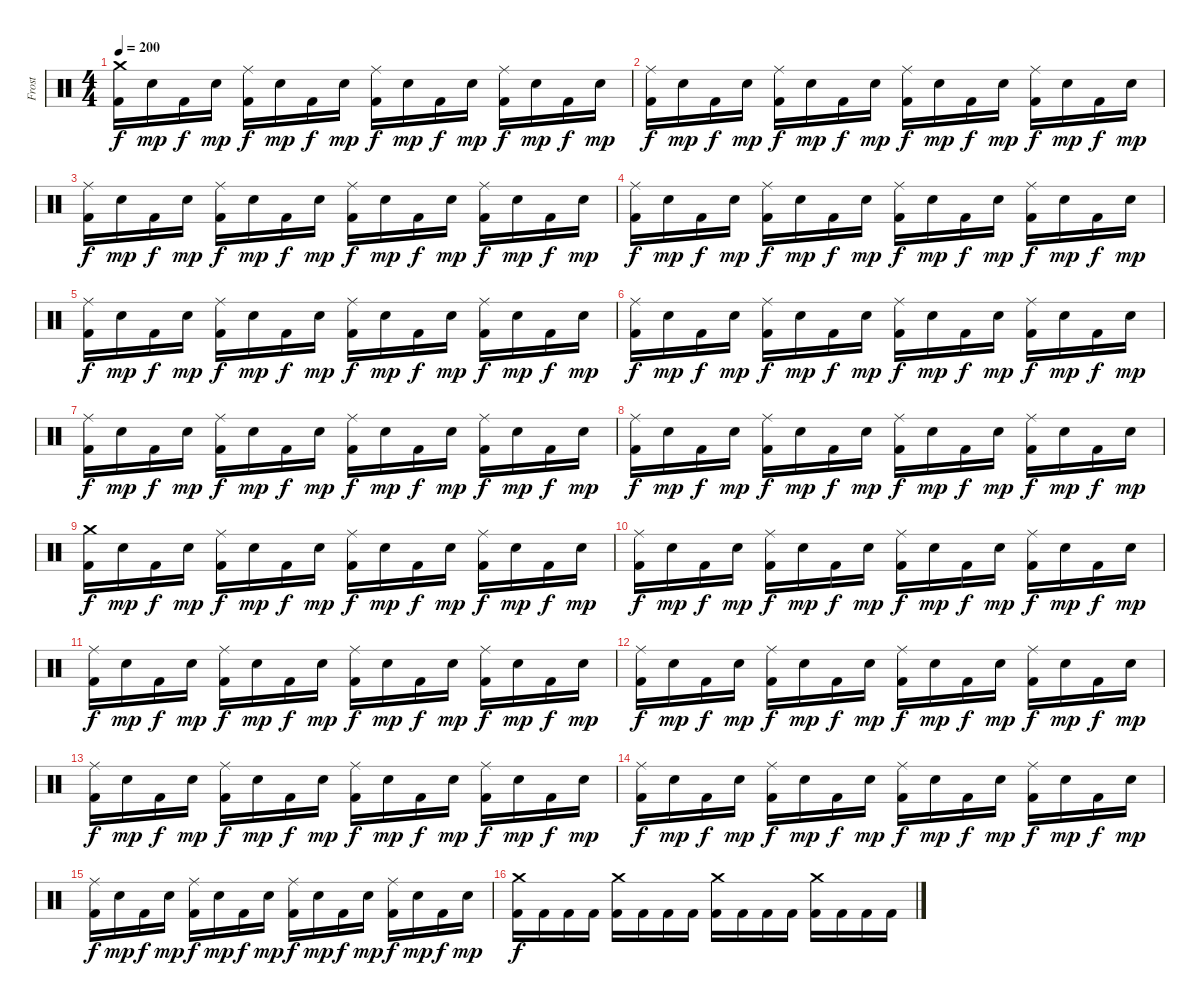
\track ("Frost" "Frost") {instrument percussion}
\staff {score}
\articulation defaults
\ts (4 4)
\tempo 200
\clef neutral
\ks c
("Crash medium (hit)" "Kick (hit) 2").16{dy f} "Electric Snare (hit)".16{dy mp} "Kick (hit) 2".16{dy f} "Electric Snare (hit)".16{dy mp} ("Ride (middle)" "Kick (hit) 2").16{dy f} "Electric Snare (hit)".16{dy mp} "Kick (hit) 2".16{dy f} "Electric Snare (hit)".16{dy mp} ("Ride (middle)" "Kick (hit) 2").16{dy f} "Electric Snare (hit)".16{dy mp} "Kick (hit) 2".16{dy f} "Electric Snare (hit)".16{dy mp} ("Ride (middle)" "Kick (hit) 2").16{dy f} "Electric Snare (hit)".16{dy mp} "Kick (hit) 2".16{dy f} "Electric Snare (hit)".16{dy mp} |
("Ride (middle)" "Kick (hit) 2").16{dy f} "Electric Snare (hit)".16{dy mp} "Kick (hit) 2".16{dy f} "Electric Snare (hit)".16{dy mp} ("Ride (middle)" "Kick (hit) 2").16{dy f} "Electric Snare (hit)".16{dy mp} "Kick (hit) 2".16{dy f} "Electric Snare (hit)".16{dy mp} ("Ride (middle)" "Kick (hit) 2").16{dy f} "Electric Snare (hit)".16{dy mp} "Kick (hit) 2".16{dy f} "Electric Snare (hit)".16{dy mp} ("Ride (middle)" "Kick (hit) 2").16{dy f} "Electric Snare (hit)".16{dy mp} "Kick (hit) 2".16{dy f} "Electric Snare (hit)".16{dy mp} |
("Ride (middle)" "Kick (hit) 2").16{dy f} "Electric Snare (hit)".16{dy mp} "Kick (hit) 2".16{dy f} "Electric Snare (hit)".16{dy mp} ("Ride (middle)" "Kick (hit) 2").16{dy f} "Electric Snare (hit)".16{dy mp} "Kick (hit) 2".16{dy f} "Electric Snare (hit)".16{dy mp} ("Ride (middle)" "Kick (hit) 2").16{dy f} "Electric Snare (hit)".16{dy mp} "Kick (hit) 2".16{dy f} "Electric Snare (hit)".16{dy mp} ("Ride (middle)" "Kick (hit) 2").16{dy f} "Electric Snare (hit)".16{dy mp} "Kick (hit) 2".16{dy f} "Electric Snare (hit)".16{dy mp} |
("Ride (middle)" "Kick (hit) 2").16{dy f} "Electric Snare (hit)".16{dy mp} "Kick (hit) 2".16{dy f} "Electric Snare (hit)".16{dy mp} ("Ride (middle)" "Kick (hit) 2").16{dy f} "Electric Snare (hit)".16{dy mp} "Kick (hit) 2".16{dy f} "Electric Snare (hit)".16{dy mp} ("Ride (middle)" "Kick (hit) 2").16{dy f} "Electric Snare (hit)".16{dy mp} "Kick (hit) 2".16{dy f} "Electric Snare (hit)".16{dy mp} ("Ride (middle)" "Kick (hit) 2").16{dy f} "Electric Snare (hit)".16{dy mp} "Kick (hit) 2".16{dy f} "Electric Snare (hit)".16{dy mp} |
("Ride (middle)" "Kick (hit) 2").16{dy f} "Electric Snare (hit)".16{dy mp} "Kick (hit) 2".16{dy f} "Electric Snare (hit)".16{dy mp} ("Ride (middle)" "Kick (hit) 2").16{dy f} "Electric Snare (hit)".16{dy mp} "Kick (hit) 2".16{dy f} "Electric Snare (hit)".16{dy mp} ("Ride (middle)" "Kick (hit) 2").16{dy f} "Electric Snare (hit)".16{dy mp} "Kick (hit) 2".16{dy f} "Electric Snare (hit)".16{dy mp} ("Ride (middle)" "Kick (hit) 2").16{dy f} "Electric Snare (hit)".16{dy mp} "Kick (hit) 2".16{dy f} "Electric Snare (hit)".16{dy mp} |
("Ride (middle)" "Kick (hit) 2").16{dy f} "Electric Snare (hit)".16{dy mp} "Kick (hit) 2".16{dy f} "Electric Snare (hit)".16{dy mp} ("Ride (middle)" "Kick (hit) 2").16{dy f} "Electric Snare (hit)".16{dy mp} "Kick (hit) 2".16{dy f} "Electric Snare (hit)".16{dy mp} ("Ride (middle)" "Kick (hit) 2").16{dy f} "Electric Snare (hit)".16{dy mp} "Kick (hit) 2".16{dy f} "Electric Snare (hit)".16{dy mp} ("Ride (middle)" "Kick (hit) 2").16{dy f} "Electric Snare (hit)".16{dy mp} "Kick (hit) 2".16{dy f} "Electric Snare (hit)".16{dy mp} |
("Ride (middle)" "Kick (hit) 2").16{dy f} "Electric Snare (hit)".16{dy mp} "Kick (hit) 2".16{dy f} "Electric Snare (hit)".16{dy mp} ("Ride (middle)" "Kick (hit) 2").16{dy f} "Electric Snare (hit)".16{dy mp} "Kick (hit) 2".16{dy f} "Electric Snare (hit)".16{dy mp} ("Ride (middle)" "Kick (hit) 2").16{dy f} "Electric Snare (hit)".16{dy mp} "Kick (hit) 2".16{dy f} "Electric Snare (hit)".16{dy mp} ("Ride (middle)" "Kick (hit) 2").16{dy f} "Electric Snare (hit)".16{dy mp} "Kick (hit) 2".16{dy f} "Electric Snare (hit)".16{dy mp} |
("Ride (middle)" "Kick (hit) 2").16{dy f} "Electric Snare (hit)".16{dy mp} "Kick (hit) 2".16{dy f} "Electric Snare (hit)".16{dy mp} ("Ride (middle)" "Kick (hit) 2").16{dy f} "Electric Snare (hit)".16{dy mp} "Kick (hit) 2".16{dy f} "Electric Snare (hit)".16{dy mp} ("Ride (middle)" "Kick (hit) 2").16{dy f} "Electric Snare (hit)".16{dy mp} "Kick (hit) 2".16{dy f} "Electric Snare (hit)".16{dy mp} ("Ride (middle)" "Kick (hit) 2").16{dy f} "Electric Snare (hit)".16{dy mp} "Kick (hit) 2".16{dy f} "Electric Snare (hit)".16{dy mp} |
("Crash medium (hit)" "Kick (hit) 2").16{dy f} "Electric Snare (hit)".16{dy mp} "Kick (hit) 2".16{dy f} "Electric Snare (hit)".16{dy mp} ("Ride (middle)" "Kick (hit) 2").16{dy f} "Electric Snare (hit)".16{dy mp} "Kick (hit) 2".16{dy f} "Electric Snare (hit)".16{dy mp} ("Ride (middle)" "Kick (hit) 2").16{dy f} "Electric Snare (hit)".16{dy mp} "Kick (hit) 2".16{dy f} "Electric Snare (hit)".16{dy mp} ("Ride (middle)" "Kick (hit) 2").16{dy f} "Electric Snare (hit)".16{dy mp} "Kick (hit) 2".16{dy f} "Electric Snare (hit)".16{dy mp} |
("Ride (middle)" "Kick (hit) 2").16{dy f} "Electric Snare (hit)".16{dy mp} "Kick (hit) 2".16{dy f} "Electric Snare (hit)".16{dy mp} ("Ride (middle)" "Kick (hit) 2").16{dy f} "Electric Snare (hit)".16{dy mp} "Kick (hit) 2".16{dy f} "Electric Snare (hit)".16{dy mp} ("Ride (middle)" "Kick (hit) 2").16{dy f} "Electric Snare (hit)".16{dy mp} "Kick (hit) 2".16{dy f} "Electric Snare (hit)".16{dy mp} ("Ride (middle)" "Kick (hit) 2").16{dy f} "Electric Snare (hit)".16{dy mp} "Kick (hit) 2".16{dy f} "Electric Snare (hit)".16{dy mp} |
("Ride (middle)" "Kick (hit) 2").16{dy f} "Electric Snare (hit)".16{dy mp} "Kick (hit) 2".16{dy f} "Electric Snare (hit)".16{dy mp} ("Ride (middle)" "Kick (hit) 2").16{dy f} "Electric Snare (hit)".16{dy mp} "Kick (hit) 2".16{dy f} "Electric Snare (hit)".16{dy mp} ("Ride (middle)" "Kick (hit) 2").16{dy f} "Electric Snare (hit)".16{dy mp} "Kick (hit) 2".16{dy f} "Electric Snare (hit)".16{dy mp} ("Ride (middle)" "Kick (hit) 2").16{dy f} "Electric Snare (hit)".16{dy mp} "Kick (hit) 2".16{dy f} "Electric Snare (hit)".16{dy mp} |
("Ride (middle)" "Kick (hit) 2").16{dy f} "Electric Snare (hit)".16{dy mp} "Kick (hit) 2".16{dy f} "Electric Snare (hit)".16{dy mp} ("Ride (middle)" "Kick (hit) 2").16{dy f} "Electric Snare (hit)".16{dy mp} "Kick (hit) 2".16{dy f} "Electric Snare (hit)".16{dy mp} ("Ride (middle)" "Kick (hit) 2").16{dy f} "Electric Snare (hit)".16{dy mp} "Kick (hit) 2".16{dy f} "Electric Snare (hit)".16{dy mp} ("Ride (middle)" "Kick (hit) 2").16{dy f} "Electric Snare (hit)".16{dy mp} "Kick (hit) 2".16{dy f} "Electric Snare (hit)".16{dy mp} |
("Ride (middle)" "Kick (hit) 2").16{dy f} "Electric Snare (hit)".16{dy mp} "Kick (hit) 2".16{dy f} "Electric Snare (hit)".16{dy mp} ("Ride (middle)" "Kick (hit) 2").16{dy f} "Electric Snare (hit)".16{dy mp} "Kick (hit) 2".16{dy f} "Electric Snare (hit)".16{dy mp} ("Ride (middle)" "Kick (hit) 2").16{dy f} "Electric Snare (hit)".16{dy mp} "Kick (hit) 2".16{dy f} "Electric Snare (hit)".16{dy mp} ("Ride (middle)" "Kick (hit) 2").16{dy f} "Electric Snare (hit)".16{dy mp} "Kick (hit) 2".16{dy f} "Electric Snare (hit)".16{dy mp} |
("Ride (middle)" "Kick (hit) 2").16{dy f} "Electric Snare (hit)".16{dy mp} "Kick (hit) 2".16{dy f} "Electric Snare (hit)".16{dy mp} ("Ride (middle)" "Kick (hit) 2").16{dy f} "Electric Snare (hit)".16{dy mp} "Kick (hit) 2".16{dy f} "Electric Snare (hit)".16{dy mp} ("Ride (middle)" "Kick (hit) 2").16{dy f} "Electric Snare (hit)".16{dy mp} "Kick (hit) 2".16{dy f} "Electric Snare (hit)".16{dy mp} ("Ride (middle)" "Kick (hit) 2").16{dy f} "Electric Snare (hit)".16{dy mp} "Kick (hit) 2".16{dy f} "Electric Snare (hit)".16{dy mp} |
("Ride (middle)" "Kick (hit) 2").16{dy f} "Electric Snare (hit)".16{dy mp} "Kick (hit) 2".16{dy f} "Electric Snare (hit)".16{dy mp} ("Ride (middle)" "Kick (hit) 2").16{dy f} "Electric Snare (hit)".16{dy mp} "Kick (hit) 2".16{dy f} "Electric Snare (hit)".16{dy mp} ("Ride (middle)" "Kick (hit) 2").16{dy f} "Electric Snare (hit)".16{dy mp} "Kick (hit) 2".16{dy f} "Electric Snare (hit)".16{dy mp} ("Ride (middle)" "Kick (hit) 2").16{dy f} "Electric Snare (hit)".16{dy mp} "Kick (hit) 2".16{dy f} "Electric Snare (hit)".16{dy mp} |
("Crash medium (hit)" "Kick (hit) 2").16{dy f} "Kick (hit) 2".16 "Kick (hit) 2".16 "Kick (hit) 2".16 ("Crash medium (hit)" "Kick (hit) 2").16 "Kick (hit) 2".16 "Kick (hit) 2".16 "Kick (hit) 2".16 ("Crash medium (hit)" "Kick (hit) 2").16 "Kick (hit) 2".16 "Kick (hit) 2".16 "Kick (hit) 2".16 ("Crash medium (hit)" "Kick (hit) 2").16 "Kick (hit) 2".16 "Kick (hit) 2".16 "Kick (hit) 2".16
